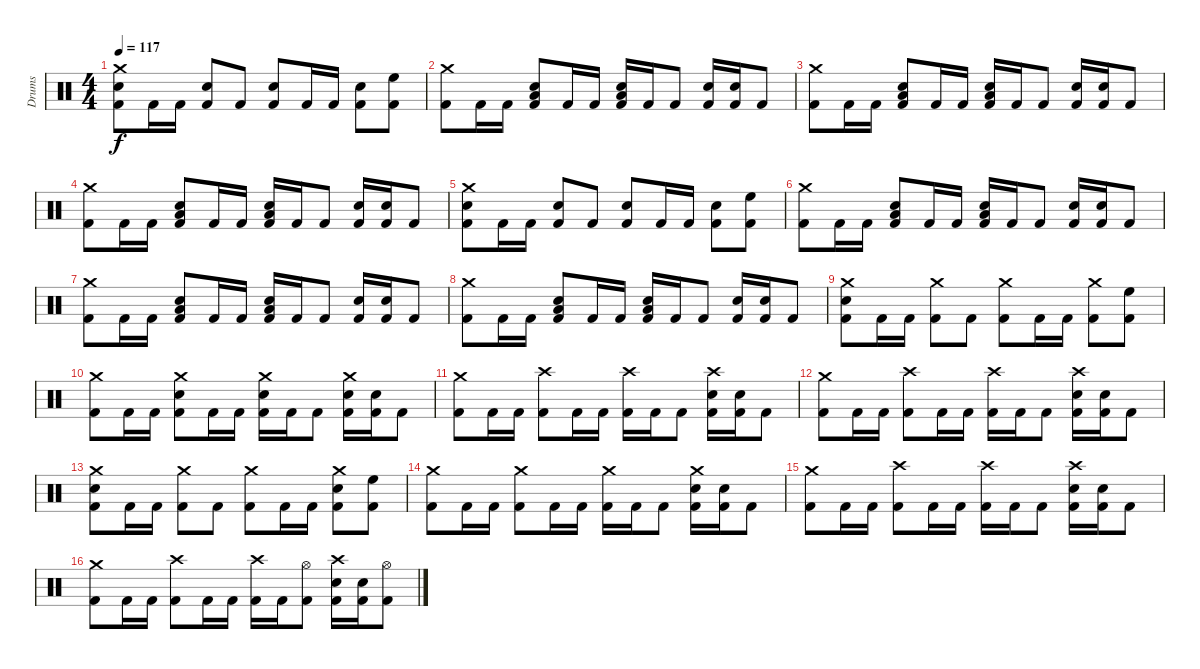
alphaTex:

\track ("Drums" "Drums") {instrument percussion}
\staff {score}
\articulation defaults
\ts (4 4)
\tempo 117
\clef neutral
\ks c
("Crash medium (hit)" "Snare (hit) 2" "Kick (hit) 2").8{dy f} "Kick (hit) 2".16 "Kick (hit) 2".16 ("Snare (hit) 2" "Kick (hit) 2").8 "Kick (hit) 2".8 ("Snare (hit) 2" "Kick (hit) 2").8 "Kick (hit) 2".16 "Kick (hit) 2".16 ("Snare (hit) 2" "Kick (hit) 2").8 ("High Floor Tom (hit)" "Kick (hit) 2").8 |
("Crash medium (hit)" "Kick (hit) 2").8 "Kick (hit) 2".16 "Kick (hit) 2".16 ("Low Floor Tom (hit)" "Snare (hit) 2" "Kick (hit) 2").8 "Kick (hit) 2".16 "Kick (hit) 2".16 ("Low Floor Tom (hit)" "Snare (hit) 2" "Kick (hit) 2").16 "Kick (hit) 2".16 "Kick (hit) 2".8 ("Snare (hit) 2" "Kick (hit) 2").16 ("Snare (hit) 2" "Kick (hit) 2").16 "Kick (hit) 2".8 |
("Crash medium (hit)" "Kick (hit) 2").8 "Kick (hit) 2".16 "Kick (hit) 2".16 ("Low Floor Tom (hit)" "Snare (hit) 2" "Kick (hit) 2").8 "Kick (hit) 2".16 "Kick (hit) 2".16 ("Low Floor Tom (hit)" "Snare (hit) 2" "Kick (hit) 2").16 "Kick (hit) 2".16 "Kick (hit) 2".8 ("Snare (hit) 2" "Kick (hit) 2").16 ("Snare (hit) 2" "Kick (hit) 2").16 "Kick (hit) 2".8 |
("Crash medium (hit)" "Kick (hit) 2").8 "Kick (hit) 2".16 "Kick (hit) 2".16 ("Low Floor Tom (hit)" "Snare (hit) 2" "Kick (hit) 2").8 "Kick (hit) 2".16 "Kick (hit) 2".16 ("Low Floor Tom (hit)" "Snare (hit) 2" "Kick (hit) 2").16 "Kick (hit) 2".16 "Kick (hit) 2".8 ("Snare (hit) 2" "Kick (hit) 2").16 ("Snare (hit) 2" "Kick (hit) 2").16 "Kick (hit) 2".8 |
("Crash medium (hit)" "Snare (hit) 2" "Kick (hit) 2").8 "Kick (hit) 2".16 "Kick (hit) 2".16 ("Snare (hit) 2" "Kick (hit) 2").8 "Kick (hit) 2".8 ("Snare (hit) 2" "Kick (hit) 2").8 "Kick (hit) 2".16 "Kick (hit) 2".16 ("Snare (hit) 2" "Kick (hit) 2").8 ("High Floor Tom (hit)" "Kick (hit) 2").8 |
("Crash medium (hit)" "Kick (hit) 2").8 "Kick (hit) 2".16 "Kick (hit) 2".16 ("Low Floor Tom (hit)" "Snare (hit) 2" "Kick (hit) 2").8 "Kick (hit) 2".16 "Kick (hit) 2".16 ("Low Floor Tom (hit)" "Snare (hit) 2" "Kick (hit) 2").16 "Kick (hit) 2".16 "Kick (hit) 2".8 ("Snare (hit) 2" "Kick (hit) 2").16 ("Snare (hit) 2" "Kick (hit) 2").16 "Kick (hit) 2".8 |
("Crash medium (hit)" "Kick (hit) 2").8 "Kick (hit) 2".16 "Kick (hit) 2".16 ("Low Floor Tom (hit)" "Snare (hit) 2" "Kick (hit) 2").8 "Kick (hit) 2".16 "Kick (hit) 2".16 ("Low Floor Tom (hit)" "Snare (hit) 2" "Kick (hit) 2").16 "Kick (hit) 2".16 "Kick (hit) 2".8 ("Snare (hit) 2" "Kick (hit) 2").16 ("Snare (hit) 2" "Kick (hit) 2").16 "Kick (hit) 2".8 |
("Crash medium (hit)" "Kick (hit) 2").8 "Kick (hit) 2".16 "Kick (hit) 2".16 ("Low Floor Tom (hit)" "Snare (hit) 2" "Kick (hit) 2").8 "Kick (hit) 2".16 "Kick (hit) 2".16 ("Low Floor Tom (hit)" "Snare (hit) 2" "Kick (hit) 2").16 "Kick (hit) 2".16 "Kick (hit) 2".8 ("Snare (hit) 2" "Kick (hit) 2").16 ("Snare (hit) 2" "Kick (hit) 2").16 "Kick (hit) 2".8 |
("Crash medium (hit)" "Snare (hit) 2" "Kick (hit) 2").8 "Kick (hit) 2".16 "Kick (hit) 2".16 ("Crash medium (hit)" "Kick (hit) 2").8 "Kick (hit) 2".8 ("Crash medium (hit)" "Kick (hit) 2").8 "Kick (hit) 2".16 "Kick (hit) 2".16 ("Crash medium (hit)" "Kick (hit) 2").8 ("High Floor Tom (hit)" "Kick (hit) 2").8 |
("Crash medium (hit)" "Kick (hit) 2").8 "Kick (hit) 2".16 "Kick (hit) 2".16 ("Crash medium (hit)" "Snare (hit) 2" "Kick (hit) 2").8 "Kick (hit) 2".16 "Kick (hit) 2".16 ("Crash medium (hit)" "Snare (hit) 2" "Kick (hit) 2").16 "Kick (hit) 2".16 "Kick (hit) 2".8 ("Crash medium (hit)" "Snare (hit) 2" "Kick (hit) 2").16 ("Snare (hit) 2" "Kick (hit) 2").16 "Kick (hit) 2".8 |
("Crash medium (hit)" "Kick (hit) 2").8 "Kick (hit) 2".16 "Kick (hit) 2".16 ("Crash high (hit)" "Kick (hit) 2").8 "Kick (hit) 2".16 "Kick (hit) 2".16 ("Crash high (hit)" "Kick (hit) 2").16 "Kick (hit) 2".16 "Kick (hit) 2".8 ("Crash high (hit)" "Snare (hit) 2" "Kick (hit) 2").16 ("Snare (hit) 2" "Kick (hit) 2").16 "Kick (hit) 2".8 |
("Crash medium (hit)" "Kick (hit) 2").8 "Kick (hit) 2".16 "Kick (hit) 2".16 ("Crash high (hit)" "Kick (hit) 2").8 "Kick (hit) 2".16 "Kick (hit) 2".16 ("Crash high (hit)" "Kick (hit) 2").16 "Kick (hit) 2".16 "Kick (hit) 2".8 ("Crash high (hit)" "Snare (hit) 2" "Kick (hit) 2").16 ("Snare (hit) 2" "Kick (hit) 2").16 "Kick (hit) 2".8 |
("Crash medium (hit)" "Snare (hit) 2" "Kick (hit) 2").8 "Kick (hit) 2".16 "Kick (hit) 2".16 ("Crash medium (hit)" "Kick (hit) 2").8 "Kick (hit) 2".8 ("Crash medium (hit)" "Kick (hit) 2").8 "Kick (hit) 2".16 "Kick (hit) 2".16 ("Crash medium (hit)" "Snare (hit) 2" "Kick (hit) 2").8 ("High Floor Tom (hit)" "Kick (hit) 2").8 |
("Crash medium (hit)" "Kick (hit) 2").8 "Kick (hit) 2".16 "Kick (hit) 2".16 ("Crash medium (hit)" "Kick (hit) 2").8 "Kick (hit) 2".16 "Kick (hit) 2".16 ("Crash medium (hit)" "Kick (hit) 2").16 "Kick (hit) 2".16 "Kick (hit) 2".8 ("Crash medium (hit)" "Snare (hit) 2" "Kick (hit) 2").16 ("Snare (hit) 2" "Kick (hit) 2").16 "Kick (hit) 2".8 |
("Crash medium (hit)" "Kick (hit) 2").8 "Kick (hit) 2".16 "Kick (hit) 2".16 ("Crash high (hit)" "Kick (hit) 2").8 "Kick (hit) 2".16 "Kick (hit) 2".16 ("Crash high (hit)" "Kick (hit) 2").16 "Kick (hit) 2".16 "Kick (hit) 2".8 ("Crash high (hit)" "Snare (hit) 2" "Kick (hit) 2").16 ("Snare (hit) 2" "Kick (hit) 2").16 "Kick (hit) 2".8 |
("Crash medium (hit)" "Kick (hit) 2").8 "Kick (hit) 2".16 "Kick (hit) 2".16 ("Crash high (hit)" "Kick (hit) 2").8 "Kick (hit) 2".16 "Kick (hit) 2".16 ("Crash high (hit)" "Kick (hit) 2").16 "Kick (hit) 2".16 ("Hi-Hat (open)" "Kick (hit) 2").8 ("Crash high (hit)" "Snare (hit) 2" "Kick (hit) 2").16 ("Snare (hit) 2" "Kick (hit) 2").16 ("Hi-Hat (open)" "Kick (hit) 2").8
